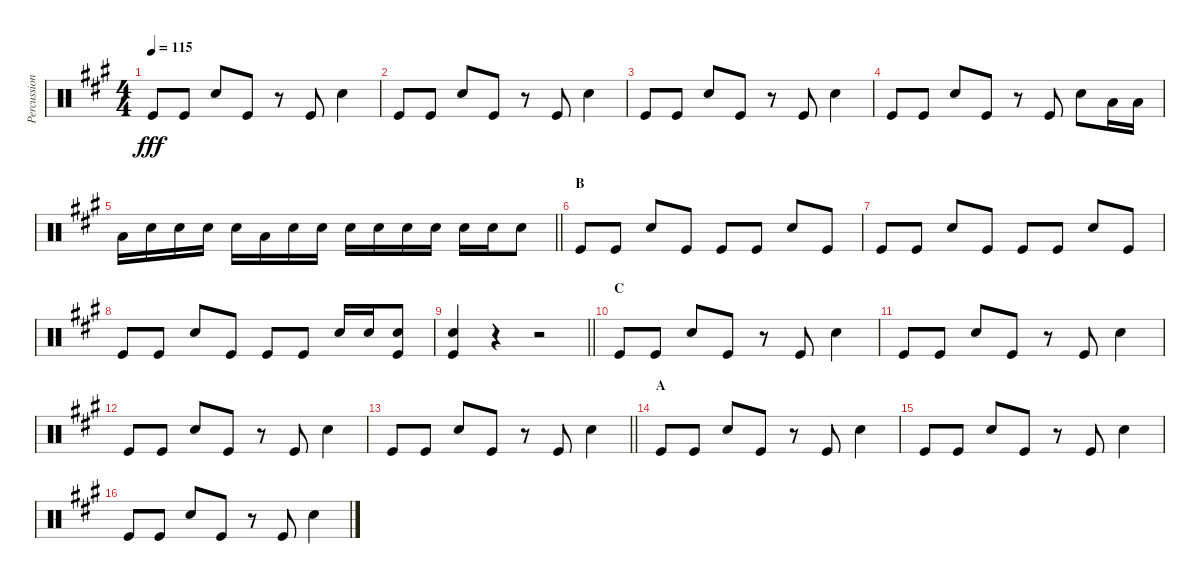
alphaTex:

\track ("Percussioni" "Percussion") {instrument percussion}
\staff {score}
\articulation defaults
\ts (4 4)
\tempo 115
\clef neutral
\ks a "Kick (hit)".8{dy fff} "Kick (hit)".8 "Snare (hit) 2".8 "Kick (hit)".8
r.8 "Kick (hit)".8 "Snare (hit) 2".4 |
"Kick (hit)".8 "Kick (hit)".8 "Snare (hit) 2".8 "Kick (hit)".8 r.8 "Kick (hit)".8 "Snare (hit) 2".4 |
"Kick (hit)".8 "Kick (hit)".8 "Snare (hit) 2".8 "Kick (hit)".8 r.8 "Kick (hit)".8 "Snare (hit) 2".4 |
"Kick (hit)".8 "Kick (hit)".8 "Snare (hit) 2".8 "Kick (hit)".8 r.8 "Kick (hit)".8 "Snare (hit) 2".8 "Low Tom (hit)".16 "Low Tom (hit)".16 |
\barLineRight lightlight "Low Tom (hit)".16 "Snare (hit) 2".16 "Snare (hit) 2".16 "Snare (hit) 2".16 "Snare (hit) 2".16 "Low Tom (hit)".16 "Snare (hit) 2".16 "Snare (hit) 2".16 "Snare (hit) 2".16 "Snare (hit) 2".16 "Snare (hit) 2".16 "Snare (hit) 2".16 "Snare (hit) 2".16 "Snare (hit) 2".16 "Snare (hit) 2".8
|
\section ("" "B")
"Kick (hit)".8 "Kick (hit)".8 "Snare (hit) 2".8 "Kick (hit)".8 "Kick (hit)".8 "Kick (hit)".8 "Snare (hit) 2".8 "Kick (hit)".8 |
"Kick (hit)".8 "Kick (hit)".8 "Snare (hit) 2".8 "Kick (hit)".8 "Kick (hit)".8 "Kick (hit)".8 "Snare (hit) 2".8 "Kick (hit)".8 |
"Kick (hit)".8 "Kick (hit)".8 "Snare (hit) 2".8 "Kick (hit)".8 "Kick (hit)".8 "Kick (hit)".8 "Snare (hit) 2".16 "Snare (hit) 2".16 ("Snare (hit) 2" "Kick (hit)").8 |
\barLineRight lightlight
("Snare (hit) 2" "Kick (hit)").4 r.4 r.2 |
\section ("" "C")
"Kick (hit)".8 "Kick (hit)".8 "Snare (hit) 2".8 "Kick (hit)".8 r.8 "Kick (hit)".8 "Snare (hit) 2".4 |
"Kick (hit)".8 "Kick (hit)".8 "Snare (hit) 2".8 "Kick (hit)".8 r.8 "Kick (hit)".8 "Snare (hit) 2".4 |
"Kick (hit)".8 "Kick (hit)".8 "Snare (hit) 2".8 "Kick (hit)".8 r.8 "Kick (hit)".8 "Snare (hit) 2".4 |
\barLineRight lightlight "Kick (hit)".8 "Kick (hit)".8 "Snare (hit) 2".8 "Kick (hit)".8
r.8 "Kick (hit)".8 "Snare (hit) 2".4 |
\section ("" "A")
"Kick (hit)".8 "Kick (hit)".8 "Snare (hit) 2".8 "Kick (hit)".8 r.8 "Kick (hit)".8 "Snare (hit) 2".4 |
"Kick (hit)".8 "Kick (hit)".8 "Snare (hit) 2".8 "Kick (hit)".8 r.8 "Kick (hit)".8 "Snare (hit) 2".4 |
"Kick (hit)".8 "Kick (hit)".8 "Snare (hit) 2".8 "Kick (hit)".8 r.8 "Kick (hit)".8 "Snare (hit) 2".4
